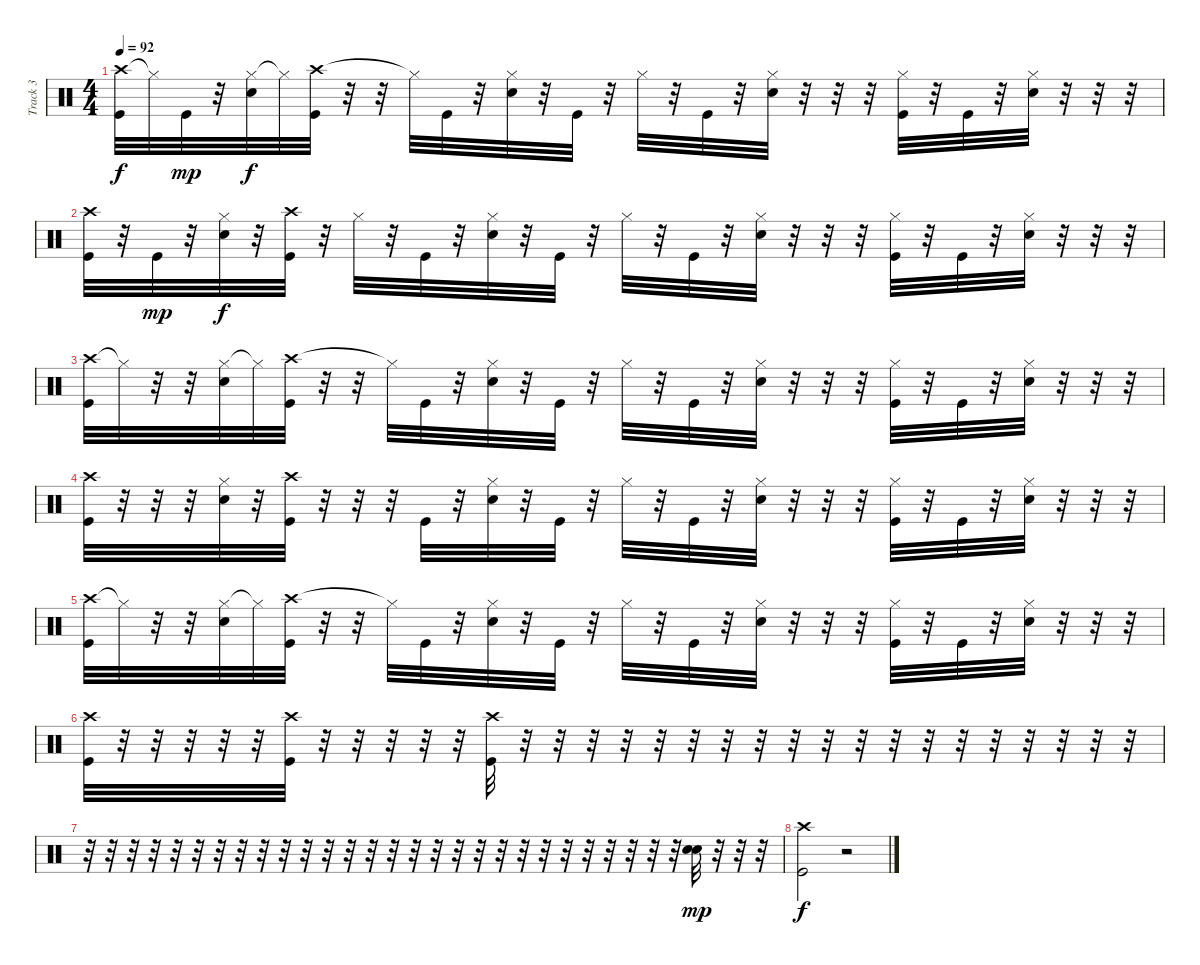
\track ("Track 3" "Track 3") {instrument percussion}
\staff {score}
\articulation defaults
\ts (4 4)
\tempo 92
\clef neutral
\ks c
("Crash high (hit)" "Kick (hit)").32{dy f} "Hi-Hat (closed)"{t}.32 "Kick (hit)".32{dy mp} r.32 ("Hi-Hat (closed)" "Electric Snare (hit)").32{dy f} "Hi-Hat (closed)"{t}.32 ("Crash high (hit)" "Kick (hit)").32 r.32 r.32 "Hi-Hat (closed)"{t}.32 "Kick (hit)".32 r.32 ("Hi-Hat (closed)" "Electric Snare (hit)").32 r.32 "Kick (hit)".32 r.32 "Hi-Hat (closed)".32 r.32 "Kick (hit)".32 r.32 ("Hi-Hat (closed)" "Electric Snare (hit)").32 r.32 r.32 r.32 ("Hi-Hat (closed)" "Kick (hit)").32 r.32 "Kick (hit)".32 r.32 ("Hi-Hat (closed)" "Electric Snare (hit)").32 r.32 r.32 r.32 |
("Crash high (hit)" "Kick (hit)").32 r.32 "Kick (hit)".32{dy mp} r.32 ("Hi-Hat (closed)" "Electric Snare (hit)").32{dy f} r.32 ("Crash high (hit)" "Kick (hit)").32 r.32 "Hi-Hat (closed)".32 r.32 "Kick (hit)".32 r.32 ("Hi-Hat (closed)" "Electric Snare (hit)").32 r.32 "Kick (hit)".32 r.32 "Hi-Hat (closed)".32 r.32 "Kick (hit)".32 r.32 ("Hi-Hat (closed)" "Electric Snare (hit)").32 r.32 r.32 r.32 ("Hi-Hat (closed)" "Kick (hit)").32 r.32 "Kick (hit)".32 r.32 ("Hi-Hat (closed)" "Electric Snare (hit)").32 r.32 r.32 r.32 |
("Crash high (hit)" "Kick (hit)").32 "Hi-Hat (closed)"{t}.32 r.32 r.32 ("Hi-Hat (closed)" "Electric Snare (hit)").32 "Hi-Hat (closed)"{t}.32 ("Crash high (hit)" "Kick (hit)").32 r.32 r.32 "Hi-Hat (closed)"{t}.32 "Kick (hit)".32 r.32 ("Hi-Hat (closed)" "Electric Snare (hit)").32 r.32 "Kick (hit)".32 r.32 "Hi-Hat (closed)".32 r.32 "Kick (hit)".32 r.32 ("Hi-Hat (closed)" "Electric Snare (hit)").32 r.32 r.32 r.32 ("Hi-Hat (closed)" "Kick (hit)").32 r.32 "Kick (hit)".32 r.32 ("Hi-Hat (closed)" "Electric Snare (hit)").32 r.32 r.32 r.32 |
("Crash high (hit)" "Kick (hit)").32 r.32 r.32 r.32 ("Hi-Hat (closed)" "Electric Snare (hit)").32 r.32 ("Crash high (hit)" "Kick (hit)").32 r.32 r.32 r.32 "Kick (hit)".32 r.32 ("Hi-Hat (closed)" "Electric Snare (hit)").32 r.32 "Kick (hit)".32 r.32 "Hi-Hat (closed)".32 r.32 "Kick (hit)".32 r.32 ("Hi-Hat (closed)" "Electric Snare (hit)").32 r.32 r.32 r.32 ("Hi-Hat (closed)" "Kick (hit)").32 r.32 "Kick (hit)".32 r.32 ("Hi-Hat (closed)" "Electric Snare (hit)").32 r.32 r.32 r.32 |
("Crash high (hit)" "Kick (hit)").32 "Hi-Hat (closed)"{t}.32 r.32 r.32 ("Hi-Hat (closed)" "Electric Snare (hit)").32 "Hi-Hat (closed)"{t}.32 ("Crash high (hit)" "Kick (hit)").32 r.32 r.32 "Hi-Hat (closed)"{t}.32 "Kick (hit)".32 r.32 ("Hi-Hat (closed)" "Electric Snare (hit)").32 r.32 "Kick (hit)".32 r.32 "Hi-Hat (closed)".32 r.32 "Kick (hit)".32 r.32 ("Hi-Hat (closed)" "Electric Snare (hit)").32 r.32 r.32 r.32 ("Hi-Hat (closed)" "Kick (hit)").32 r.32 "Kick (hit)".32 r.32 ("Hi-Hat (closed)" "Electric Snare (hit)").32 r.32 r.32 r.32 |
("Crash high (hit)" "Kick (hit)").32 r.32 r.32 r.32 r.32 r.32 ("Crash high (hit)" "Kick (hit)").32 r.32 r.32 r.32 r.32 r.32 ("Crash high (hit)" "Kick (hit)").32 r.32 r.32 r.32 r.32 r.32 r.32 r.32 r.32 r.32 r.32 r.32 r.32 r.32 r.32 r.32 r.32 r.32 r.32 r.32 |
r.32 r.32 r.32 r.32 r.32 r.32 r.32 r.32 r.32 r.32 r.32 r.32 r.32 r.32 r.32 r.32 r.32 r.32 r.32 r.32 r.32 r.32 r.32 r.32 r.32 r.32 r.32 r.32 ("Snare (hit) 2" "Electric Snare (hit)").32{dy mp} r.32 r.32 r.32 |
("Crash high (hit)" "Kick (hit)").2{dy f} r.2
